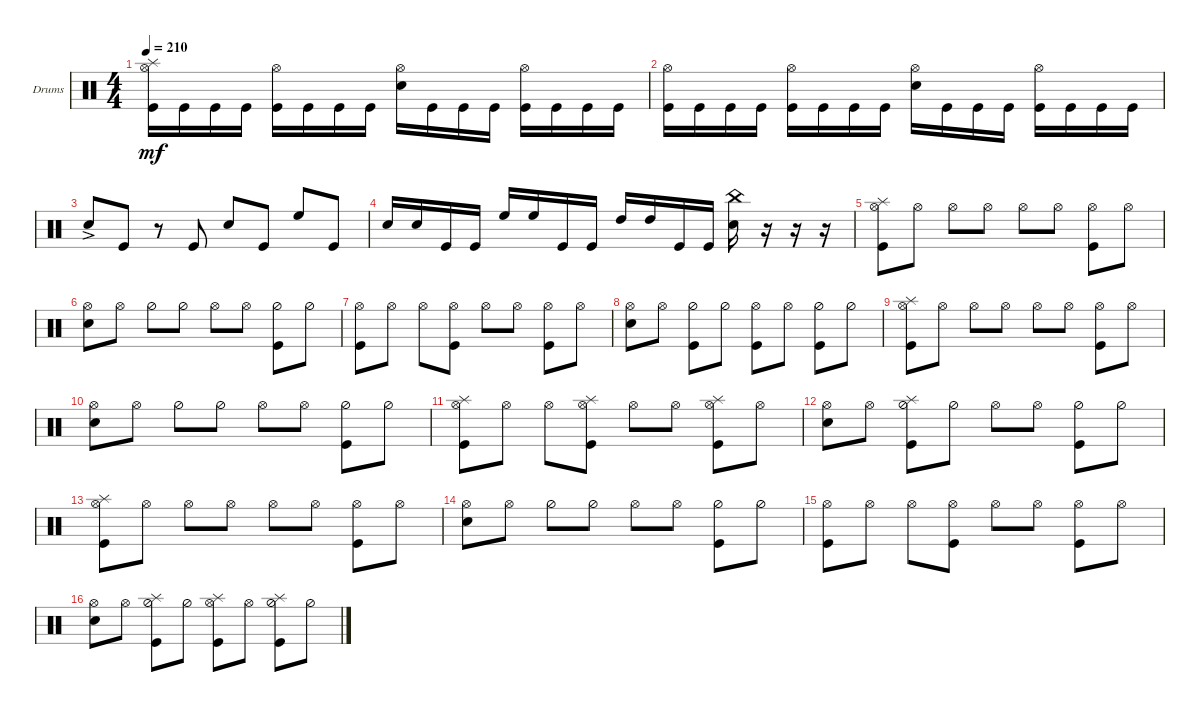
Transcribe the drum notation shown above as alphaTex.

\bracketExtendMode groupsimilarinstruments
\firstSystemTrackNameOrientation horizontal
\otherSystemsTrackNameOrientation horizontal
\track ("Drumkit" "Drums") {instrument percussion}
\staff {score}
\articulation defaults
\ts (4 4)
\tempo 210
\clef neutral
\ks c
("Kick (hit)" "Splash (hit)" "Hi-Hat (open)").16{dy mf} "Kick (hit)".16 "Kick (hit)".16 "Kick (hit)".16 ("Kick (hit)" "Hi-Hat (open)").16 "Kick (hit)".16 "Kick (hit)".16 "Kick (hit)".16 ("Snare (hit) 2" "Hi-Hat (open)").16 "Kick (hit)".16 "Kick (hit)".16 "Kick (hit)".16 ("Kick (hit)" "Hi-Hat (open)").16 "Kick (hit)".16 "Kick (hit)".16 "Kick (hit)".16 |
("Kick (hit)" "Hi-Hat (open)").16 "Kick (hit)".16 "Kick (hit)".16 "Kick (hit)".16 ("Kick (hit)" "Hi-Hat (open)").16 "Kick (hit)".16 "Kick (hit)".16 "Kick (hit)".16 ("Snare (hit) 2" "Hi-Hat (open)").16 "Kick (hit)".16 "Kick (hit)".16 "Kick (hit)".16 ("Kick (hit)" "Hi-Hat (open)").16 "Kick (hit)".16 "Kick (hit)".16 "Kick (hit)".16 |
"Snare (hit) 2"{ac}.8 "Kick (hit)".8 r.8 "Kick (hit)".8 "Snare (hit) 2".8 "Kick (hit)".8 "High Floor Tom (hit)".8 "Kick (hit)".8 |
"Snare (hit) 2".16 "Snare (hit) 2".16 "Kick (hit)".16 "Kick (hit)".16 "High Floor Tom (hit)".16 "High Floor Tom (hit)".16 "Kick (hit)".16 "Kick (hit)".16 "High Tom (hit)".16 "High Tom (hit)".16 "Kick (hit)".16 "Kick (hit)".16 ("Snare (hit) 2" "China (hit)").16 r.16 r.16 r.16 |
("Kick (hit)" "Splash (hit)" "Hi-Hat (open)").8 "Hi-Hat (open)".8 "Hi-Hat (open)".8 "Hi-Hat (open)".8 "Hi-Hat (open)".8 "Hi-Hat (open)".8 ("Kick (hit)" "Hi-Hat (open)").8 "Hi-Hat (open)".8 |
("Snare (hit) 2" "Hi-Hat (open)").8 "Hi-Hat (open)".8 "Hi-Hat (half)".8 "Hi-Hat (half)".8 "Hi-Hat (open)".8 "Hi-Hat (open)".8 ("Kick (hit)" "Hi-Hat (half)").8 "Hi-Hat (half)".8 |
("Kick (hit)" "Hi-Hat (open)").8 "Hi-Hat (open)".8 "Hi-Hat (open)".8 ("Kick (hit)" "Hi-Hat (open)").8 "Hi-Hat (open)".8 "Hi-Hat (open)".8 ("Kick (hit)" "Hi-Hat (open)").8 "Hi-Hat (open)".8 |
("Snare (hit) 2" "Hi-Hat (open)").8 "Hi-Hat (open)".8 ("Kick (hit)" "Hi-Hat (half)").8 "Hi-Hat (half)".8 ("Kick (hit)" "Hi-Hat (open)").8 "Hi-Hat (open)".8 ("Kick (hit)" "Hi-Hat (half)").8 "Hi-Hat (half)".8 |
("Kick (hit)" "Hi-Hat (open)" "Splash (hit)").8 "Hi-Hat (open)".8 "Hi-Hat (open)".8 "Hi-Hat (open)".8 "Hi-Hat (open)".8 "Hi-Hat (open)".8 ("Kick (hit)" "Hi-Hat (open)").8 "Hi-Hat (open)".8 |
("Snare (hit) 2" "Hi-Hat (open)").8 "Hi-Hat (open)".8 "Hi-Hat (half)".8 "Hi-Hat (half)".8 "Hi-Hat (open)".8 "Hi-Hat (open)".8 ("Kick (hit)" "Hi-Hat (half)").8 "Hi-Hat (half)".8 |
("Kick (hit)" "Splash (hit)" "Hi-Hat (open)").8 "Hi-Hat (open)".8 "Hi-Hat (open)".8 ("Kick (hit)" "Splash (hit)" "Hi-Hat (open)").8 "Hi-Hat (open)".8 "Hi-Hat (open)".8 ("Kick (hit)" "Splash (hit)" "Hi-Hat (open)").8 "Hi-Hat (open)".8 |
("Snare (hit) 2" "Hi-Hat (open)").8 "Hi-Hat (open)".8 ("Kick (hit)" "Splash (hit)" "Hi-Hat (half)").8 "Hi-Hat (half)".8 "Hi-Hat (open)".8 "Hi-Hat (open)".8 ("Kick (hit)" "Hi-Hat (half)").8 "Hi-Hat (half)".8 |
("Kick (hit)" "Splash (hit)" "Hi-Hat (open)").8 "Hi-Hat (open)".8 "Hi-Hat (open)".8 "Hi-Hat (open)".8 "Hi-Hat (open)".8 "Hi-Hat (open)".8 ("Kick (hit)" "Hi-Hat (open)").8 "Hi-Hat (open)".8 |
("Snare (hit) 2" "Hi-Hat (open)").8 "Hi-Hat (open)".8 "Hi-Hat (half)".8 "Hi-Hat (half)".8 "Hi-Hat (open)".8 "Hi-Hat (open)".8 ("Kick (hit)" "Hi-Hat (half)").8 "Hi-Hat (half)".8 |
("Kick (hit)" "Hi-Hat (open)").8 "Hi-Hat (open)".8 "Hi-Hat (open)".8 ("Kick (hit)" "Hi-Hat (open)").8 "Hi-Hat (open)".8 "Hi-Hat (open)".8 ("Kick (hit)" "Hi-Hat (open)").8 "Hi-Hat (open)".8 |
("Snare (hit) 2" "Hi-Hat (open)").8 "Hi-Hat (open)".8 ("Kick (hit)" "Splash (hit)" "Hi-Hat (half)").8 "Hi-Hat (half)".8 ("Kick (hit)" "Splash (hit)" "Hi-Hat (open)").8 "Hi-Hat (open)".8 ("Kick (hit)" "Splash (hit)" "Hi-Hat (half)").8 "Hi-Hat (half)".8
